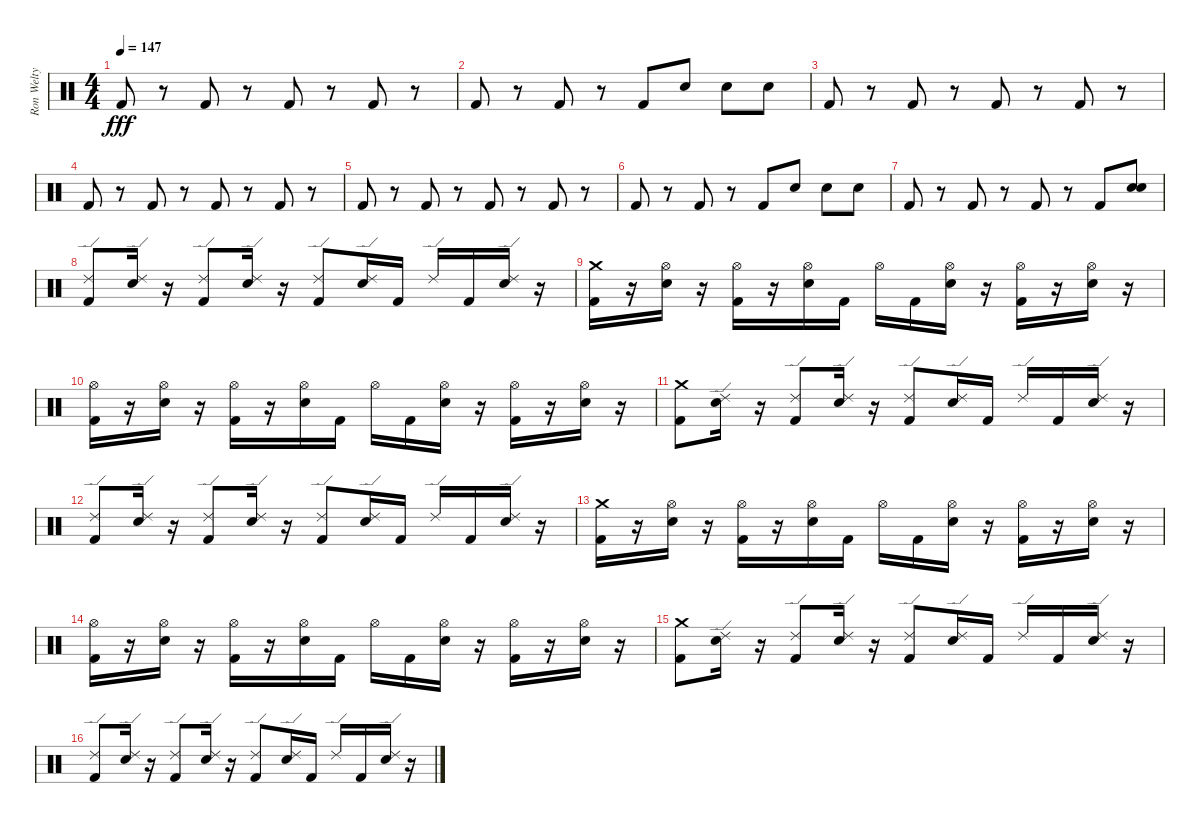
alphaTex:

\track ("Ron Welty" "Ron Welty") {instrument percussion}
\staff {score}
\articulation defaults
\ts (4 4)
\tempo 147
\clef neutral
\ks c "Kick (hit) 2".8{dy fff}
r.8 "Kick (hit) 2".8 r.8 "Kick (hit) 2".8 r.8 "Kick (hit) 2".8 r.8 |
"Kick (hit) 2".8 r.8 "Kick (hit) 2".8 r.8 "Kick (hit) 2".8 "Snare (hit) 2".8 "Snare (hit) 2".8 "Snare (hit) 2".8 |
"Kick (hit) 2".8 r.8 "Kick (hit) 2".8 r.8 "Kick (hit) 2".8 r.8 "Kick (hit) 2".8 r.8 |
"Kick (hit) 2".8 r.8 "Kick (hit) 2".8 r.8 "Kick (hit) 2".8 r.8 "Kick (hit) 2".8 r.8 |
"Kick (hit) 2".8 r.8 "Kick (hit) 2".8 r.8 "Kick (hit) 2".8 r.8 "Kick (hit) 2".8 r.8 |
"Kick (hit) 2".8 r.8 "Kick (hit) 2".8 r.8 "Kick (hit) 2".8 "Snare (hit) 2".8 "Snare (hit) 2".8 "Snare (hit) 2".8 |
"Kick (hit) 2".8 r.8 "Kick (hit) 2".8 r.8 "Kick (hit) 2".8 r.8 "Kick (hit) 2".8 ("Snare (hit) 2" "Snare (hit) 2").8 |
("Kick (hit) 2" "Ride (edge) 2").8 ("Snare (hit) 2" "Ride (edge) 2").16 r.16 ("Kick (hit) 2" "Ride (edge) 2").8 ("Snare (hit) 2" "Ride (edge) 2").16 r.16 ("Kick (hit) 2" "Ride (edge) 2").8 ("Snare (hit) 2" "Ride (edge) 2").16 "Kick (hit) 2".16 "Ride (edge) 2".16 "Kick (hit) 2".16 ("Snare (hit) 2" "Ride (edge) 2").16 r.16 |
("Kick (hit) 2" "Crash medium (hit)").16 r.16 ("Hi-Hat (open)" "Snare (hit) 2").16 r.16 ("Hi-Hat (open)" "Kick (hit) 2").16 r.16 ("Hi-Hat (open)" "Snare (hit) 2").16 "Kick (hit) 2".16 "Hi-Hat (open)".16 "Kick (hit) 2".16 ("Hi-Hat (open)" "Snare (hit) 2").16 r.16 ("Hi-Hat (open)" "Kick (hit) 2").16 r.16 ("Hi-Hat (open)" "Snare (hit) 2").16 r.16 |
("Hi-Hat (open)" "Kick (hit) 2").16 r.16 ("Hi-Hat (open)" "Snare (hit) 2").16 r.16 ("Hi-Hat (open)" "Kick (hit) 2").16 r.16 ("Hi-Hat (open)" "Snare (hit) 2").16 "Kick (hit) 2".16 "Hi-Hat (open)".16 "Kick (hit) 2".16 ("Hi-Hat (open)" "Snare (hit) 2").16 r.16 ("Hi-Hat (open)" "Kick (hit) 2").16 r.16 ("Hi-Hat (open)" "Snare (hit) 2").16 r.16 |
("Kick (hit) 2" "Crash medium (hit)").8 ("Snare (hit) 2" "Ride (edge) 2").16 r.16 ("Kick (hit) 2" "Ride (edge) 2").8 ("Snare (hit) 2" "Ride (edge) 2").16 r.16 ("Kick (hit) 2" "Ride (edge) 2").8 ("Snare (hit) 2" "Ride (edge) 2").16 "Kick (hit) 2".16 "Ride (edge) 2".16 "Kick (hit) 2".16 ("Snare (hit) 2" "Ride (edge) 2").16 r.16 |
("Kick (hit) 2" "Ride (edge) 2").8 ("Snare (hit) 2" "Ride (edge) 2").16 r.16 ("Kick (hit) 2" "Ride (edge) 2").8 ("Snare (hit) 2" "Ride (edge) 2").16 r.16 ("Kick (hit) 2" "Ride (edge) 2").8 ("Snare (hit) 2" "Ride (edge) 2").16 "Kick (hit) 2".16 "Ride (edge) 2".16 "Kick (hit) 2".16 ("Snare (hit) 2" "Ride (edge) 2").16 r.16 |
("Kick (hit) 2" "Crash medium (hit)").16 r.16 ("Hi-Hat (open)" "Snare (hit) 2").16 r.16 ("Hi-Hat (open)" "Kick (hit) 2").16 r.16 ("Hi-Hat (open)" "Snare (hit) 2").16 "Kick (hit) 2".16 "Hi-Hat (open)".16 "Kick (hit) 2".16 ("Hi-Hat (open)" "Snare (hit) 2").16 r.16 ("Hi-Hat (open)" "Kick (hit) 2").16 r.16 ("Hi-Hat (open)" "Snare (hit) 2").16 r.16 |
("Hi-Hat (open)" "Kick (hit) 2").16 r.16 ("Hi-Hat (open)" "Snare (hit) 2").16 r.16 ("Hi-Hat (open)" "Kick (hit) 2").16 r.16 ("Hi-Hat (open)" "Snare (hit) 2").16 "Kick (hit) 2".16 "Hi-Hat (open)".16 "Kick (hit) 2".16 ("Hi-Hat (open)" "Snare (hit) 2").16 r.16 ("Hi-Hat (open)" "Kick (hit) 2").16 r.16 ("Hi-Hat (open)" "Snare (hit) 2").16 r.16 |
("Kick (hit) 2" "Crash medium (hit)").8 ("Snare (hit) 2" "Ride (edge) 2").16 r.16 ("Kick (hit) 2" "Ride (edge) 2").8 ("Snare (hit) 2" "Ride (edge) 2").16 r.16 ("Kick (hit) 2" "Ride (edge) 2").8 ("Snare (hit) 2" "Ride (edge) 2").16 "Kick (hit) 2".16 "Ride (edge) 2".16 "Kick (hit) 2".16 ("Snare (hit) 2" "Ride (edge) 2").16 r.16 |
("Kick (hit) 2" "Ride (edge) 2").8 ("Snare (hit) 2" "Ride (edge) 2").16 r.16 ("Kick (hit) 2" "Ride (edge) 2").8 ("Snare (hit) 2" "Ride (edge) 2").16 r.16 ("Kick (hit) 2" "Ride (edge) 2").8 ("Snare (hit) 2" "Ride (edge) 2").16 "Kick (hit) 2".16 "Ride (edge) 2".16 "Kick (hit) 2".16 ("Snare (hit) 2" "Ride (edge) 2").16 r.16
